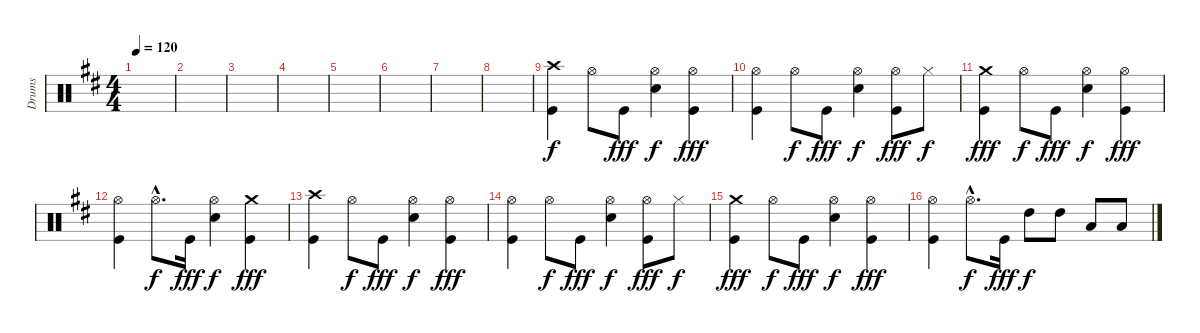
\track ("Drums" "Drums") {instrument percussion}
\staff {score}
\articulation defaults
\ts (4 4)
\tempo 120
\clef neutral
\ks d
|
|
|
|
|
|
|
|
("Crash high (hit)" "Kick (hit)").4 "Hi-Hat (open)".8{dy f} "Kick (hit)".8{dy fff} ("Hi-Hat (open)" "Snare (hit) 2").4{dy f} ("Hi-Hat (open)" "Kick (hit)").4{dy fff} |
("Hi-Hat (open)" "Kick (hit)").4 "Hi-Hat (open)".8{dy f} "Kick (hit)".8{dy fff} ("Hi-Hat (open)" "Snare (hit) 2").4{dy f} ("Hi-Hat (open)" "Kick (hit)").8{dy fff} "Hi-Hat (closed)".8{dy f} |
("Crash medium (hit)" "Kick (hit)").4{dy fff} "Hi-Hat (open)".8{dy f} "Kick (hit)".8{dy fff} ("Hi-Hat (open)" "Snare (hit) 2").4{dy f} ("Hi-Hat (open)" "Kick (hit)").4{dy fff} |
("Hi-Hat (open)" "Kick (hit)").4 "Hi-Hat (open)"{hac}.8{d dy f} "Kick (hit)".16{dy fff} ("Hi-Hat (open)" "Snare (hit) 2").4{dy f} ("Crash medium (hit)" "Kick (hit)").4{dy fff} |
("Crash high (hit)" "Kick (hit)").4 "Hi-Hat (open)".8{dy f} "Kick (hit)".8{dy fff} ("Hi-Hat (open)" "Snare (hit) 2").4{dy f} ("Hi-Hat (open)" "Kick (hit)").4{dy fff} |
("Hi-Hat (open)" "Kick (hit)").4 "Hi-Hat (open)".8{dy f} "Kick (hit)".8{dy fff} ("Hi-Hat (open)" "Snare (hit) 2").4{dy f} ("Hi-Hat (open)" "Kick (hit)").8{dy fff} "Hi-Hat (closed)".8{dy f} |
("Crash medium (hit)" "Kick (hit)").4{dy fff} "Hi-Hat (open)".8{dy f} "Kick (hit)".8{dy fff} ("Hi-Hat (open)" "Snare (hit) 2").4{dy f} ("Hi-Hat (open)" "Kick (hit)").4{dy fff} |
("Hi-Hat (open)" "Kick (hit)").4 "Hi-Hat (open)"{hac}.8{d dy f} "Kick (hit)".16{dy fff} "High Tom (hit)".8{dy f} "High Tom (hit)".8 "Low Tom (hit)".8 "Low Tom (hit)".8
